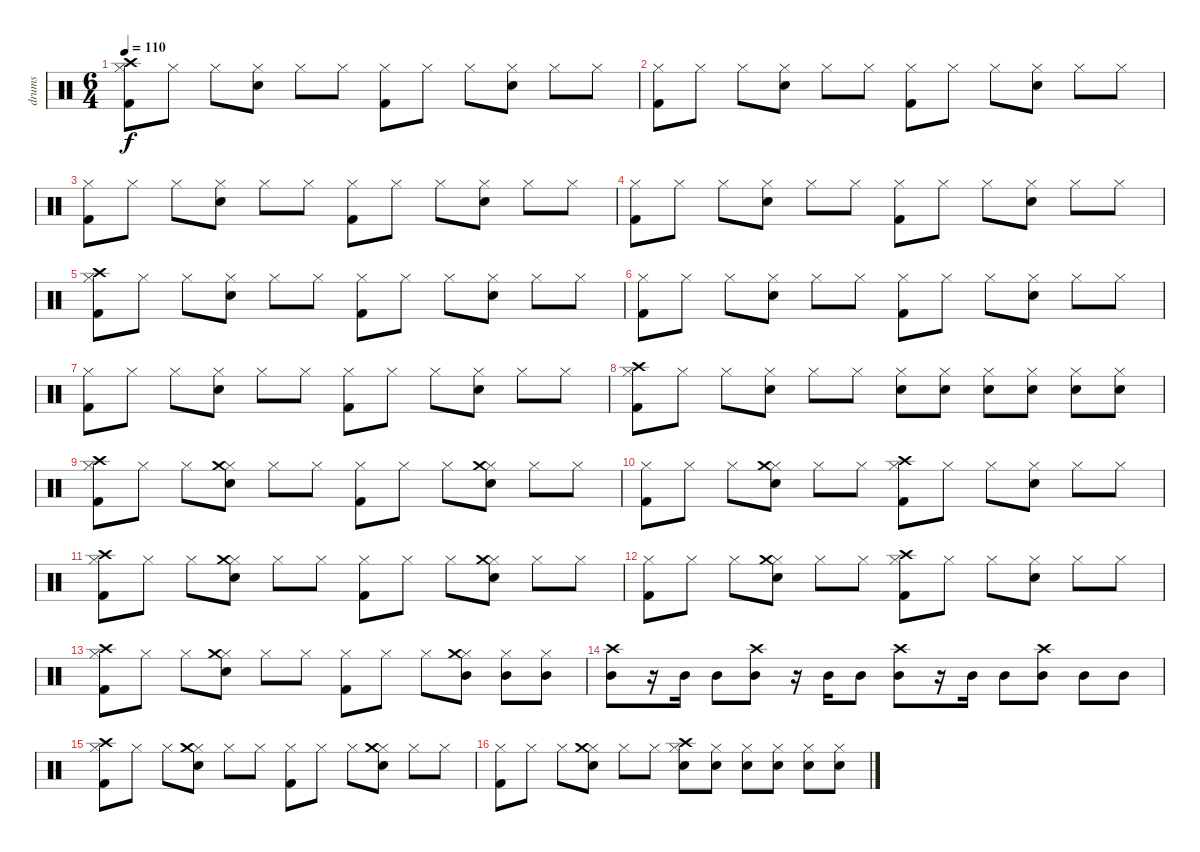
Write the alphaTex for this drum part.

\track ("drums" "drums") {instrument percussion}
\staff {score}
\articulation defaults
\ts (6 4)
\tempo 110
\clef neutral
\ks c
("Hi-Hat (closed)" "Kick (hit) 2" "Crash high (hit)").8{dy f} "Hi-Hat (closed)".8 "Hi-Hat (closed)".8 ("Hi-Hat (closed)" "Snare (hit) 2").8 "Hi-Hat (closed)".8 "Hi-Hat (closed)".8 ("Hi-Hat (closed)" "Kick (hit) 2").8 "Hi-Hat (closed)".8 "Hi-Hat (closed)".8 ("Hi-Hat (closed)" "Snare (hit) 2").8 "Hi-Hat (closed)".8 "Hi-Hat (closed)".8 |
("Hi-Hat (closed)" "Kick (hit) 2").8 "Hi-Hat (closed)".8 "Hi-Hat (closed)".8 ("Hi-Hat (closed)" "Snare (hit) 2").8 "Hi-Hat (closed)".8 "Hi-Hat (closed)".8 ("Hi-Hat (closed)" "Kick (hit) 2").8 "Hi-Hat (closed)".8 "Hi-Hat (closed)".8 ("Hi-Hat (closed)" "Snare (hit) 2").8 "Hi-Hat (closed)".8 "Hi-Hat (closed)".8 |
("Hi-Hat (closed)" "Kick (hit) 2").8 "Hi-Hat (closed)".8 "Hi-Hat (closed)".8 ("Hi-Hat (closed)" "Snare (hit) 2").8 "Hi-Hat (closed)".8 "Hi-Hat (closed)".8 ("Hi-Hat (closed)" "Kick (hit) 2").8 "Hi-Hat (closed)".8 "Hi-Hat (closed)".8 ("Hi-Hat (closed)" "Snare (hit) 2").8 "Hi-Hat (closed)".8 "Hi-Hat (closed)".8 |
("Hi-Hat (closed)" "Kick (hit) 2").8 "Hi-Hat (closed)".8 "Hi-Hat (closed)".8 ("Hi-Hat (closed)" "Snare (hit) 2").8 "Hi-Hat (closed)".8 "Hi-Hat (closed)".8 ("Hi-Hat (closed)" "Kick (hit) 2").8 "Hi-Hat (closed)".8 "Hi-Hat (closed)".8 ("Hi-Hat (closed)" "Snare (hit) 2").8 "Hi-Hat (closed)".8 "Hi-Hat (closed)".8 |
("Hi-Hat (closed)" "Kick (hit) 2" "Crash high (hit)").8 "Hi-Hat (closed)".8 "Hi-Hat (closed)".8 ("Hi-Hat (closed)" "Snare (hit) 2").8 "Hi-Hat (closed)".8 "Hi-Hat (closed)".8 ("Hi-Hat (closed)" "Kick (hit) 2").8 "Hi-Hat (closed)".8 "Hi-Hat (closed)".8 ("Hi-Hat (closed)" "Snare (hit) 2").8 "Hi-Hat (closed)".8 "Hi-Hat (closed)".8 |
("Hi-Hat (closed)" "Kick (hit) 2").8 "Hi-Hat (closed)".8 "Hi-Hat (closed)".8 ("Hi-Hat (closed)" "Snare (hit) 2").8 "Hi-Hat (closed)".8 "Hi-Hat (closed)".8 ("Hi-Hat (closed)" "Kick (hit) 2").8 "Hi-Hat (closed)".8 "Hi-Hat (closed)".8 ("Hi-Hat (closed)" "Snare (hit) 2").8 "Hi-Hat (closed)".8 "Hi-Hat (closed)".8 |
("Hi-Hat (closed)" "Kick (hit) 2").8 "Hi-Hat (closed)".8 "Hi-Hat (closed)".8 ("Hi-Hat (closed)" "Snare (hit) 2").8 "Hi-Hat (closed)".8 "Hi-Hat (closed)".8 ("Hi-Hat (closed)" "Kick (hit) 2").8 "Hi-Hat (closed)".8 "Hi-Hat (closed)".8 ("Hi-Hat (closed)" "Snare (hit) 2").8 "Hi-Hat (closed)".8 "Hi-Hat (closed)".8 |
("Hi-Hat (closed)" "Kick (hit) 2" "Crash high (hit)").8 "Hi-Hat (closed)".8 "Hi-Hat (closed)".8 ("Hi-Hat (closed)" "Snare (hit) 2").8 "Hi-Hat (closed)".8 "Hi-Hat (closed)".8 ("Hi-Hat (closed)" "Snare (hit) 2").8 ("Hi-Hat (closed)" "Snare (hit) 2").8 ("Hi-Hat (closed)" "Snare (hit) 2").8 ("Hi-Hat (closed)" "Snare (hit) 2").8 ("Hi-Hat (closed)" "Snare (hit) 2").8 ("Hi-Hat (closed)" "Snare (hit) 2").8 |
("Hi-Hat (closed)" "Kick (hit) 2" "Crash high (hit)").8 "Hi-Hat (closed)".8 "Hi-Hat (closed)".8 ("Hi-Hat (closed)" "Snare (hit) 2" "Crash medium (hit)").8 "Hi-Hat (closed)".8 "Hi-Hat (closed)".8 ("Hi-Hat (closed)" "Kick (hit) 2").8 "Hi-Hat (closed)".8 "Hi-Hat (closed)".8 ("Hi-Hat (closed)" "Snare (hit) 2" "Crash medium (hit)").8 "Hi-Hat (closed)".8 "Hi-Hat (closed)".8 |
("Hi-Hat (closed)" "Kick (hit) 2").8 "Hi-Hat (closed)".8 "Hi-Hat (closed)".8 ("Hi-Hat (closed)" "Snare (hit) 2" "Crash medium (hit)").8 "Hi-Hat (closed)".8 "Hi-Hat (closed)".8 ("Hi-Hat (closed)" "Kick (hit) 2" "Crash high (hit)").8 "Hi-Hat (closed)".8 "Hi-Hat (closed)".8 ("Hi-Hat (closed)" "Snare (hit) 2").8 "Hi-Hat (closed)".8 "Hi-Hat (closed)".8 |
("Hi-Hat (closed)" "Kick (hit) 2" "Crash high (hit)").8 "Hi-Hat (closed)".8 "Hi-Hat (closed)".8 ("Hi-Hat (closed)" "Snare (hit) 2" "Crash medium (hit)").8 "Hi-Hat (closed)".8 "Hi-Hat (closed)".8 ("Hi-Hat (closed)" "Kick (hit) 2").8 "Hi-Hat (closed)".8 "Hi-Hat (closed)".8 ("Hi-Hat (closed)" "Snare (hit) 2" "Crash medium (hit)").8 "Hi-Hat (closed)".8 "Hi-Hat (closed)".8 |
("Hi-Hat (closed)" "Kick (hit) 2").8 "Hi-Hat (closed)".8 "Hi-Hat (closed)".8 ("Hi-Hat (closed)" "Snare (hit) 2" "Crash medium (hit)").8 "Hi-Hat (closed)".8 "Hi-Hat (closed)".8 ("Hi-Hat (closed)" "Kick (hit) 2" "Crash high (hit)").8 "Hi-Hat (closed)".8 "Hi-Hat (closed)".8 ("Hi-Hat (closed)" "Snare (hit) 2").8 "Hi-Hat (closed)".8 "Hi-Hat (closed)".8 |
("Hi-Hat (closed)" "Kick (hit) 2" "Crash high (hit)").8 "Hi-Hat (closed)".8 "Hi-Hat (closed)".8 ("Hi-Hat (closed)" "Snare (hit) 2" "Crash medium (hit)").8 "Hi-Hat (closed)".8 "Hi-Hat (closed)".8 ("Hi-Hat (closed)" "Kick (hit) 2").8 "Hi-Hat (closed)".8 "Hi-Hat (closed)".8 ("Hi-Hat (closed)" "Mid Tom (hit)" "Crash medium (hit)").8 ("Hi-Hat (closed)" "Mid Tom (hit)").8 ("Hi-Hat (closed)" "Mid Tom (hit)").8 |
("Crash high (hit)" "Mid Tom (hit)").8 r.16 "Mid Tom (hit)".16 "Mid Tom (hit)".8 ("Crash high (hit)" "Mid Tom (hit)").8 r.16 "Mid Tom (hit)".16 "Mid Tom (hit)".8 ("Crash high (hit)" "Mid Tom (hit)").8 r.16 "Mid Tom (hit)".16 "Mid Tom (hit)".8 ("Crash high (hit)" "Mid Tom (hit)").8 "Mid Tom (hit)".8 "Mid Tom (hit)".8 |
("Hi-Hat (closed)" "Kick (hit) 2" "Crash high (hit)").8 "Hi-Hat (closed)".8 "Hi-Hat (closed)".8 ("Hi-Hat (closed)" "Snare (hit) 2" "Crash medium (hit)").8 "Hi-Hat (closed)".8 "Hi-Hat (closed)".8 ("Hi-Hat (closed)" "Kick (hit) 2").8 "Hi-Hat (closed)".8 "Hi-Hat (closed)".8 ("Hi-Hat (closed)" "Snare (hit) 2" "Crash medium (hit)").8 "Hi-Hat (closed)".8 "Hi-Hat (closed)".8 |
("Hi-Hat (closed)" "Kick (hit) 2").8 "Hi-Hat (closed)".8 "Hi-Hat (closed)".8 ("Hi-Hat (closed)" "Snare (hit) 2" "Crash medium (hit)").8 "Hi-Hat (closed)".8 "Hi-Hat (closed)".8 ("Hi-Hat (closed)" "Snare (hit) 2" "Crash high (hit)").8 ("Hi-Hat (closed)" "Snare (hit) 2").8 ("Hi-Hat (closed)" "Snare (hit) 2").8 ("Hi-Hat (closed)" "Snare (hit) 2").8 ("Hi-Hat (closed)" "Snare (hit) 2").8 ("Hi-Hat (closed)" "Snare (hit) 2").8
